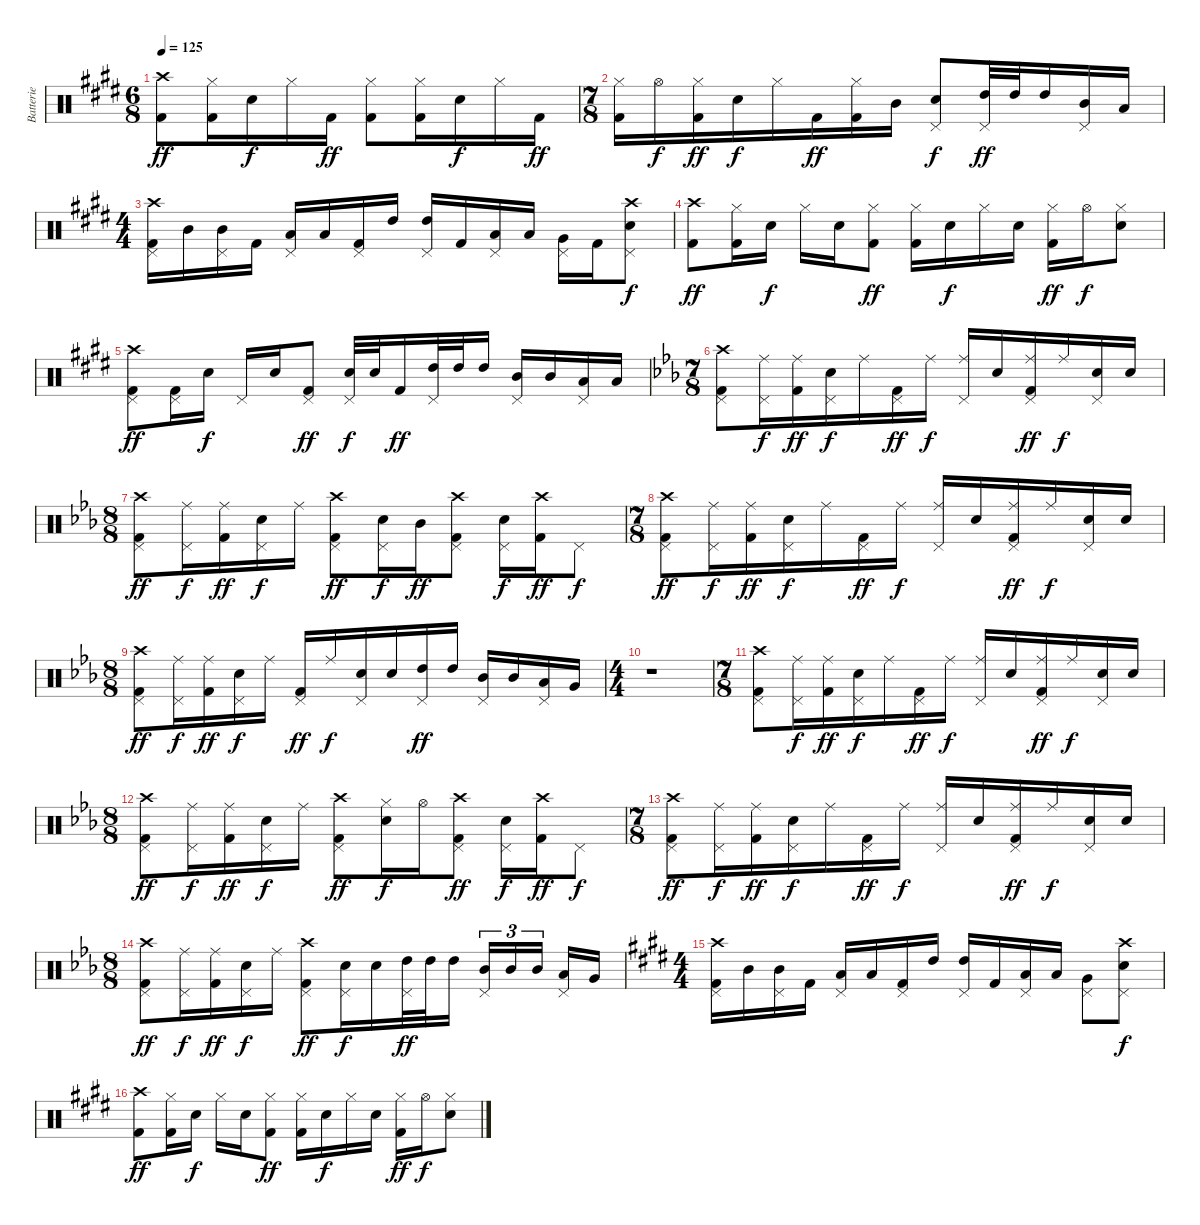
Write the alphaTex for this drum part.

\track ("Batterie" "Batterie") {instrument percussion}
\staff {score}
\articulation defaults
\ts (6 8)
\tempo 125
\clef neutral
\ks e
("Crash high (hit)" "Kick (hit) 2").8{dy ff} ("Hi-Hat (closed)" "Kick (hit) 2").16 "Snare (hit) 2".16{dy f} "Hi-Hat (closed)".16 "Kick (hit) 2".16{dy ff} ("Hi-Hat (closed)" "Kick (hit) 2").8 ("Hi-Hat (closed)" "Kick (hit) 2").16 "Snare (hit) 2".16{dy f} "Hi-Hat (closed)".16 "Kick (hit) 2".16{dy ff} |
\ts (7 8)
("Hi-Hat (closed)" "Kick (hit) 2").16 "Hi-Hat (open)".16{dy f} ("Hi-Hat (closed)" "Kick (hit) 2").16{dy ff} "Snare (hit) 2".16{dy f} "Hi-Hat (closed)".16 "Kick (hit) 2".16{dy ff} ("Hi-Hat (closed)" "Kick (hit) 2").16 "Mid Tom (hit)".16 ("Pedal Hi-Hat (hit)" "Snare (hit) 2").8{dy f} ("Pedal Hi-Hat (hit)" "High Tom (hit)").32{dy ff} "High Tom (hit)".32 "High Tom (hit)".16 ("Pedal Hi-Hat (hit)" "Mid Tom (hit)").16 "Low Tom (hit)".16 |
\ts (4 4)
("Crash high (hit)" "Pedal Hi-Hat (hit)" "Kick (hit) 2").16 "Mid Tom (hit)".16 ("Pedal Hi-Hat (hit)" "Mid Tom (hit)").16 "Kick (hit) 2".16 ("Pedal Hi-Hat (hit)" "Low Tom (hit)").16 "Low Tom (hit)".16 ("Pedal Hi-Hat (hit)" "Kick (hit) 2").16 "High Tom (hit)".16 ("Pedal Hi-Hat (hit)" "High Tom (hit)").16 "Kick (hit) 2".16 ("Pedal Hi-Hat (hit)" "Low Tom (hit)").16 "Low Tom (hit)".16 ("Pedal Hi-Hat (hit)" "Very Low Tom (hit)").16 "Kick (hit) 2".16 ("Crash high (hit)" "Pedal Hi-Hat (hit)" "Snare (hit) 2").8{dy f} |
("Crash high (hit)" "Kick (hit) 2").8{dy ff} ("Hi-Hat (closed)" "Kick (hit) 2").16 "Snare (hit) 2".16{dy f} "Hi-Hat (closed)".16 "Snare (hit) 2".16 ("Hi-Hat (closed)" "Kick (hit) 2").8{dy ff} ("Hi-Hat (closed)" "Kick (hit) 2").16 "Snare (hit) 2".16{dy f} "Hi-Hat (closed)".16 "Snare (hit) 2".16 ("Hi-Hat (closed)" "Kick (hit) 2").16{dy ff} "Hi-Hat (open)".16{dy f} ("Hi-Hat (closed)" "Snare (hit) 2").8 |
("Crash high (hit)" "Pedal Hi-Hat (hit)" "Kick (hit) 2").8{dy ff} ("Pedal Hi-Hat (hit)" "Kick (hit) 2").16 "Snare (hit) 2".16{dy f} "Pedal Hi-Hat (hit)".16 "Snare (hit) 2".16 ("Pedal Hi-Hat (hit)" "Kick (hit) 2").8{dy ff} ("Pedal Hi-Hat (hit)" "Snare (hit) 2").32{dy f} "Snare (hit) 2".32 "Kick (hit) 2".16{dy ff} ("Pedal Hi-Hat (hit)" "High Tom (hit)").32 "High Tom (hit)".32 "High Tom (hit)".16 ("Pedal Hi-Hat (hit)" "Mid Tom (hit)").16 "Mid Tom (hit)".16 ("Pedal Hi-Hat (hit)" "Low Tom (hit)").16 "Low Tom (hit)".16 |
\ts (7 8)
\ks eb
("Crash high (hit)" "Pedal Hi-Hat (hit)" "Kick (hit) 2").8 ("Ride (middle)" "Pedal Hi-Hat (hit)").16{dy f} ("Ride (middle)" "Kick (hit) 2").16{dy ff} ("Pedal Hi-Hat (hit)" "Snare (hit) 2").16{dy f} "Ride (middle)".16 ("Pedal Hi-Hat (hit)" "Kick (hit) 2").16{dy ff} "Ride (middle)".16{dy f} ("Ride (middle)" "Pedal Hi-Hat (hit)").16 "Snare (hit) 2".16 ("Ride (middle)" "Pedal Hi-Hat (hit)" "Kick (hit) 2").16{dy ff} "Ride (middle)".16{dy f} ("Pedal Hi-Hat (hit)" "Snare (hit) 2").16 "Snare (hit) 2".16 |
\ts (8 8)
("Crash high (hit)" "Pedal Hi-Hat (hit)" "Kick (hit) 2").8{dy ff} ("Ride (middle)" "Pedal Hi-Hat (hit)").16{dy f} ("Ride (middle)" "Kick (hit) 2").16{dy ff} ("Pedal Hi-Hat (hit)" "Snare (hit) 2").16{dy f} "Ride (middle)".16 ("Crash high (hit)" "Pedal Hi-Hat (hit)" "Kick (hit) 2").8{dy ff} ("Pedal Hi-Hat (hit)" "Snare (hit) 2").16{dy f} "Mid Tom (hit)".16{dy ff} ("Crash high (hit)" "Pedal Hi-Hat (hit)" "Kick (hit) 2").8 ("Pedal Hi-Hat (hit)" "Snare (hit) 2").16{dy f} ("Crash high (hit)" "Kick (hit) 2").16{dy ff} "Pedal Hi-Hat (hit)".8{dy f} |
\ts (7 8)
("Crash high (hit)" "Pedal Hi-Hat (hit)" "Kick (hit) 2").8{dy ff} ("Ride (middle)" "Pedal Hi-Hat (hit)").16{dy f} ("Ride (middle)" "Kick (hit) 2").16{dy ff} ("Pedal Hi-Hat (hit)" "Snare (hit) 2").16{dy f} "Ride (middle)".16 ("Pedal Hi-Hat (hit)" "Kick (hit) 2").16{dy ff} "Ride (middle)".16{dy f} ("Ride (middle)" "Pedal Hi-Hat (hit)").16 "Snare (hit) 2".16 ("Ride (middle)" "Pedal Hi-Hat (hit)" "Kick (hit) 2").16{dy ff} "Ride (middle)".16{dy f} ("Pedal Hi-Hat (hit)" "Snare (hit) 2").16 "Snare (hit) 2".16 |
\ts (8 8)
("Crash high (hit)" "Pedal Hi-Hat (hit)" "Kick (hit) 2").8{dy ff} ("Ride (middle)" "Pedal Hi-Hat (hit)").16{dy f} ("Ride (middle)" "Kick (hit) 2").16{dy ff} ("Pedal Hi-Hat (hit)" "Snare (hit) 2").16{dy f} "Ride (middle)".16 ("Pedal Hi-Hat (hit)" "Kick (hit) 2").16{dy ff} "Ride (middle)".16{dy f} ("Pedal Hi-Hat (hit)" "Snare (hit) 2").16 "Snare (hit) 2".16 ("Pedal Hi-Hat (hit)" "High Tom (hit)").16{dy ff} "High Tom (hit)".16 ("Pedal Hi-Hat (hit)" "Mid Tom (hit)").16 "Mid Tom (hit)".16 ("Pedal Hi-Hat (hit)" "Low Tom (hit)").16 "Very Low Tom (hit)".16 |
\ts (4 4)
r.1 |
\ts (7 8)
("Crash high (hit)" "Pedal Hi-Hat (hit)" "Kick (hit) 2").8 ("Ride (middle)" "Pedal Hi-Hat (hit)").16{dy f} ("Ride (middle)" "Kick (hit) 2").16{dy ff} ("Pedal Hi-Hat (hit)" "Snare (hit) 2").16{dy f} "Ride (middle)".16 ("Pedal Hi-Hat (hit)" "Kick (hit) 2").16{dy ff} "Ride (middle)".16{dy f} ("Ride (middle)" "Pedal Hi-Hat (hit)").16 "Snare (hit) 2".16 ("Ride (middle)" "Pedal Hi-Hat (hit)" "Kick (hit) 2").16{dy ff} "Ride (middle)".16{dy f} ("Pedal Hi-Hat (hit)" "Snare (hit) 2").16 "Snare (hit) 2".16 |
\ts (8 8)
("Crash high (hit)" "Pedal Hi-Hat (hit)" "Kick (hit) 2").8{dy ff} ("Ride (middle)" "Pedal Hi-Hat (hit)").16{dy f} ("Ride (middle)" "Kick (hit) 2").16{dy ff} ("Pedal Hi-Hat (hit)" "Snare (hit) 2").16{dy f} "Ride (middle)".16 ("Crash high (hit)" "Pedal Hi-Hat (hit)" "Kick (hit) 2").8{dy ff} ("Hi-Hat (closed)" "Snare (hit) 2").16{dy f} "Hi-Hat (open)".16 ("Crash high (hit)" "Pedal Hi-Hat (hit)" "Kick (hit) 2").8{dy ff} ("Pedal Hi-Hat (hit)" "Snare (hit) 2").16{dy f} ("Crash high (hit)" "Kick (hit) 2").16{dy ff} "Pedal Hi-Hat (hit)".8{dy f} |
\ts (7 8)
("Crash high (hit)" "Pedal Hi-Hat (hit)" "Kick (hit) 2").8{dy ff} ("Ride (middle)" "Pedal Hi-Hat (hit)").16{dy f} ("Ride (middle)" "Kick (hit) 2").16{dy ff} ("Pedal Hi-Hat (hit)" "Snare (hit) 2").16{dy f} "Ride (middle)".16 ("Pedal Hi-Hat (hit)" "Kick (hit) 2").16{dy ff} "Ride (middle)".16{dy f} ("Ride (middle)" "Pedal Hi-Hat (hit)").16 "Snare (hit) 2".16 ("Ride (middle)" "Pedal Hi-Hat (hit)" "Kick (hit) 2").16{dy ff} "Ride (middle)".16{dy f} ("Pedal Hi-Hat (hit)" "Snare (hit) 2").16 "Snare (hit) 2".16 |
\ts (8 8)
("Crash high (hit)" "Pedal Hi-Hat (hit)" "Kick (hit) 2").8{dy ff} ("Ride (middle)" "Pedal Hi-Hat (hit)").16{dy f} ("Ride (middle)" "Kick (hit) 2").16{dy ff} ("Pedal Hi-Hat (hit)" "Snare (hit) 2").16{dy f} "Ride (middle)".16 ("Crash high (hit)" "Pedal Hi-Hat (hit)" "Kick (hit) 2").8{dy ff} ("Pedal Hi-Hat (hit)" "Snare (hit) 2").16{dy f} "Snare (hit) 2".16 ("Pedal Hi-Hat (hit)" "High Tom (hit)").32{dy ff} "High Tom (hit)".32 "High Tom (hit)".16 ("Pedal Hi-Hat (hit)" "Mid Tom (hit)").16{tu (3 2)} "Mid Tom (hit)".16{tu (3 2)} "Mid Tom (hit)".16{tu (3 2)} ("Pedal Hi-Hat (hit)" "Low Tom (hit)").16 "Very Low Tom (hit)".16 |
\ts (4 4)
\ks e
("Crash high (hit)" "Pedal Hi-Hat (hit)" "Kick (hit) 2").16 "Mid Tom (hit)".16 ("Pedal Hi-Hat (hit)" "Mid Tom (hit)").16 "Kick (hit) 2".16 ("Pedal Hi-Hat (hit)" "Low Tom (hit)").16 "Low Tom (hit)".16 ("Pedal Hi-Hat (hit)" "Kick (hit) 2").16 "High Tom (hit)".16 ("Pedal Hi-Hat (hit)" "High Tom (hit)").16 "Kick (hit) 2".16 ("Pedal Hi-Hat (hit)" "Low Tom (hit)").16 "Low Tom (hit)".16 ("Pedal Hi-Hat (hit)" "Very Low Tom (hit)").8 ("Crash high (hit)" "Pedal Hi-Hat (hit)" "Snare (hit) 2").8{dy f} |
("Crash high (hit)" "Kick (hit) 2").8{dy ff} ("Hi-Hat (closed)" "Kick (hit) 2").16 "Snare (hit) 2".16{dy f} "Hi-Hat (closed)".16 "Snare (hit) 2".16 ("Hi-Hat (closed)" "Kick (hit) 2").8{dy ff} ("Hi-Hat (closed)" "Kick (hit) 2").16 "Snare (hit) 2".16{dy f} "Hi-Hat (closed)".16 "Snare (hit) 2".16 ("Hi-Hat (closed)" "Kick (hit) 2").16{dy ff} "Hi-Hat (open)".16{dy f} ("Hi-Hat (closed)" "Snare (hit) 2").8
